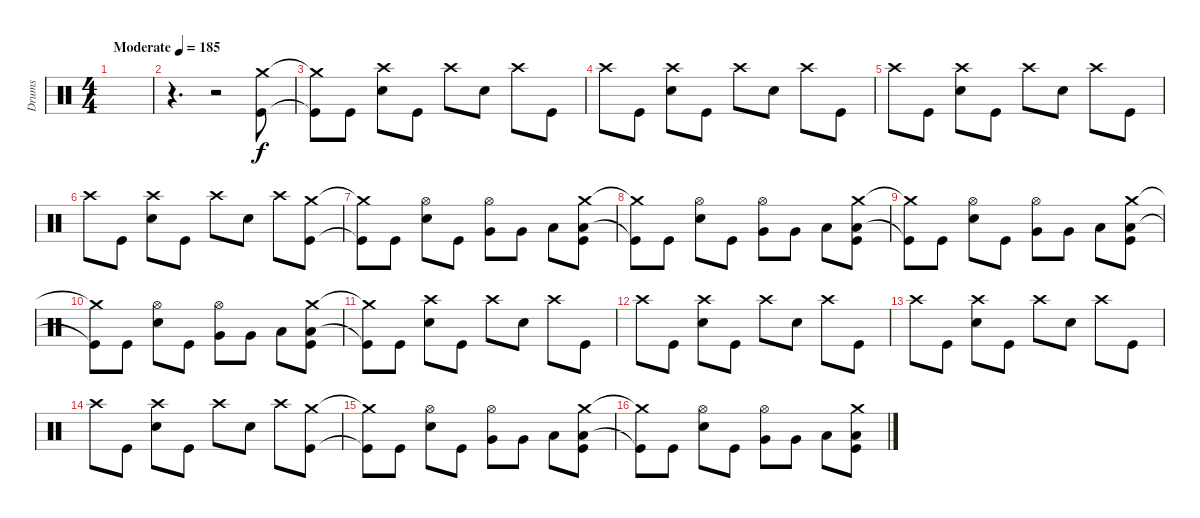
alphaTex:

\track ("Drums" "Drums") {instrument percussion}
\staff {score}
\articulation defaults
\ts (4 4)
\tempo (185 "Moderate")
\clef neutral
\ks c
|
r.4{d} r.2 ("Crash medium (hit)" "Kick (hit)").8 |
("Crash medium (hit)"{t} "Kick (hit)"{t}).8 "Kick (hit)".8 ("Crash high (hit)" "Snare (hit) 2").8 "Kick (hit)".8 "Crash high (hit)".8 "Snare (hit) 2".8 "Crash high (hit)".8 "Kick (hit)".8 |
"Crash high (hit)".8 "Kick (hit)".8 ("Crash high (hit)" "Snare (hit) 2").8 "Kick (hit)".8 "Crash high (hit)".8 "Snare (hit) 2".8 "Crash high (hit)".8 "Kick (hit)".8 |
"Crash high (hit)".8 "Kick (hit)".8 ("Crash high (hit)" "Snare (hit) 2").8 "Kick (hit)".8 "Crash high (hit)".8 "Snare (hit) 2".8 "Crash high (hit)".8 "Kick (hit)".8 |
"Crash high (hit)".8 "Kick (hit)".8 ("Crash high (hit)" "Snare (hit) 2").8 "Kick (hit)".8 "Crash high (hit)".8 "Snare (hit) 2".8 "Crash high (hit)".8 ("Crash medium (hit)" "Kick (hit)").8 |
("Crash medium (hit)"{t} "Kick (hit)"{t}).8 "Kick (hit)".8 ("Hi-Hat (open)" "Snare (hit) 2").8 "Kick (hit)".8 ("Hi-Hat (open)" "Very Low Tom (hit)").8 "Very Low Tom (hit)".8 "Low Floor Tom (hit)".8 ("Crash medium (hit)" "Low Floor Tom (hit)" "Kick (hit)").8 |
("Crash medium (hit)"{t} "Kick (hit)"{t}).8 "Kick (hit)".8 ("Hi-Hat (open)" "Snare (hit) 2").8 "Kick (hit)".8 ("Hi-Hat (open)" "Very Low Tom (hit)").8 "Very Low Tom (hit)".8 "Low Floor Tom (hit)".8 ("Crash medium (hit)" "Low Floor Tom (hit)" "Kick (hit)").8 |
("Crash medium (hit)"{t} "Kick (hit)"{t}).8 "Kick (hit)".8 ("Hi-Hat (open)" "Snare (hit) 2").8 "Kick (hit)".8 ("Hi-Hat (open)" "Very Low Tom (hit)").8 "Very Low Tom (hit)".8 "Low Floor Tom (hit)".8 ("Crash medium (hit)" "Low Floor Tom (hit)" "Kick (hit)").8 |
("Crash medium (hit)"{t} "Kick (hit)"{t}).8 "Kick (hit)".8 ("Hi-Hat (open)" "Snare (hit) 2").8 "Kick (hit)".8 ("Hi-Hat (open)" "Very Low Tom (hit)").8 "Very Low Tom (hit)".8 "Low Floor Tom (hit)".8 ("Crash medium (hit)" "Low Floor Tom (hit)" "Kick (hit)").8 |
("Crash medium (hit)"{t} "Kick (hit)"{t}).8 "Kick (hit)".8 ("Crash high (hit)" "Snare (hit) 2").8 "Kick (hit)".8 "Crash high (hit)".8 "Snare (hit) 2".8 "Crash high (hit)".8 "Kick (hit)".8 |
"Crash high (hit)".8 "Kick (hit)".8 ("Crash high (hit)" "Snare (hit) 2").8 "Kick (hit)".8 "Crash high (hit)".8 "Snare (hit) 2".8 "Crash high (hit)".8 "Kick (hit)".8 |
"Crash high (hit)".8 "Kick (hit)".8 ("Crash high (hit)" "Snare (hit) 2").8 "Kick (hit)".8 "Crash high (hit)".8 "Snare (hit) 2".8 "Crash high (hit)".8 "Kick (hit)".8 |
"Crash high (hit)".8 "Kick (hit)".8 ("Crash high (hit)" "Snare (hit) 2").8 "Kick (hit)".8 "Crash high (hit)".8 "Snare (hit) 2".8 "Crash high (hit)".8 ("Crash medium (hit)" "Kick (hit)").8 |
("Crash medium (hit)"{t} "Kick (hit)"{t}).8 "Kick (hit)".8 ("Hi-Hat (open)" "Snare (hit) 2").8 "Kick (hit)".8 ("Hi-Hat (open)" "Very Low Tom (hit)").8 "Very Low Tom (hit)".8 "Low Floor Tom (hit)".8 ("Crash medium (hit)" "Low Floor Tom (hit)" "Kick (hit)").8 |
("Crash medium (hit)"{t} "Kick (hit)"{t}).8 "Kick (hit)".8 ("Hi-Hat (open)" "Snare (hit) 2").8 "Kick (hit)".8 ("Hi-Hat (open)" "Very Low Tom (hit)").8 "Very Low Tom (hit)".8 "Low Floor Tom (hit)".8 ("Crash medium (hit)" "Low Floor Tom (hit)" "Kick (hit)").8
